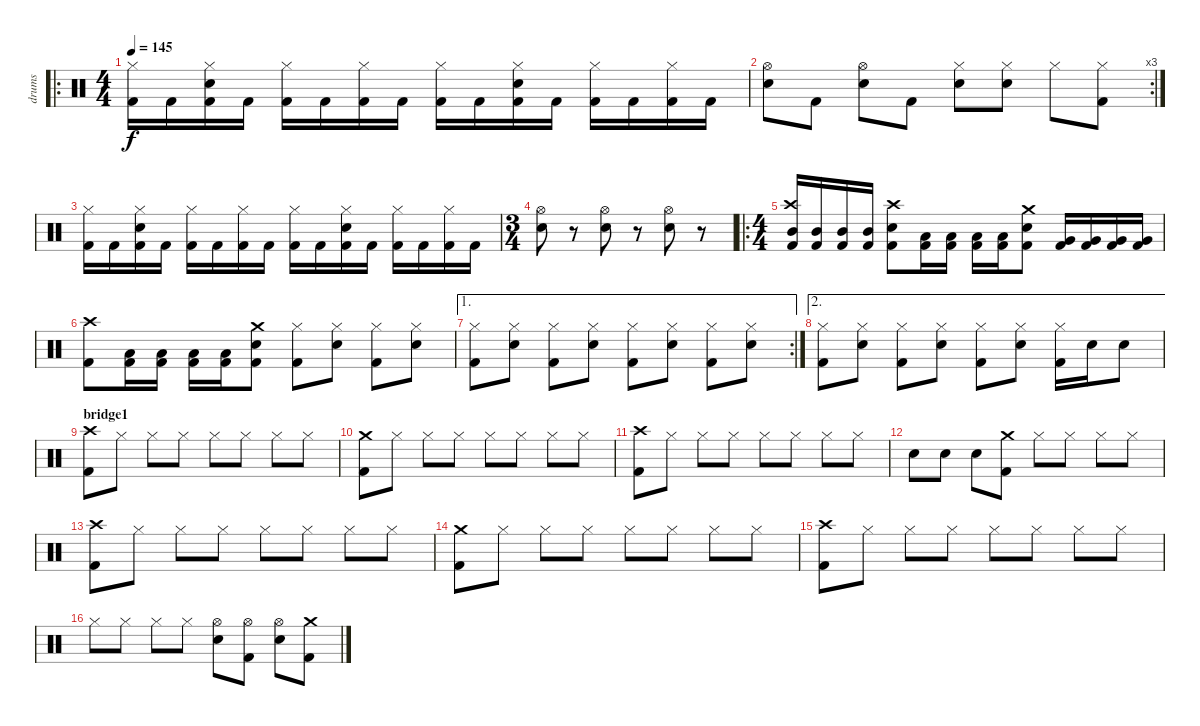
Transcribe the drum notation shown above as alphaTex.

\track ("drums" "drums") {instrument percussion}
\staff {score}
\articulation defaults
\ro
\ts (4 4)
\tempo 145
\clef neutral
\ks c
("Kick (hit) 2" "Hi-Hat (closed)").16{dy f} "Kick (hit) 2".16 ("Snare (hit) 2" "Kick (hit) 2" "Hi-Hat (closed)").16 "Kick (hit) 2".16 ("Kick (hit) 2" "Hi-Hat (closed)").16 "Kick (hit) 2".16 ("Kick (hit) 2" "Hi-Hat (closed)").16 "Kick (hit) 2".16 ("Kick (hit) 2" "Hi-Hat (closed)").16 "Kick (hit) 2".16 ("Snare (hit) 2" "Kick (hit) 2" "Hi-Hat (closed)").16 "Kick (hit) 2".16 ("Kick (hit) 2" "Hi-Hat (closed)").16 "Kick (hit) 2".16 ("Kick (hit) 2" "Hi-Hat (closed)").16 "Kick (hit) 2".16 |
\rc 3
("Snare (hit) 2" "Hi-Hat (open)").8 "Kick (hit) 2".8 ("Snare (hit) 2" "Hi-Hat (open)").8 "Kick (hit) 2".8 ("Snare (hit) 2" "Hi-Hat (closed)").8 ("Snare (hit) 2" "Hi-Hat (closed)").8 "Hi-Hat (closed)".8 ("Kick (hit) 2" "Hi-Hat (closed)").8 |
("Kick (hit) 2" "Hi-Hat (closed)").16 "Kick (hit) 2".16 ("Snare (hit) 2" "Kick (hit) 2" "Hi-Hat (closed)").16 "Kick (hit) 2".16 ("Kick (hit) 2" "Hi-Hat (closed)").16 "Kick (hit) 2".16 ("Kick (hit) 2" "Hi-Hat (closed)").16 "Kick (hit) 2".16 ("Kick (hit) 2" "Hi-Hat (closed)").16 "Kick (hit) 2".16 ("Snare (hit) 2" "Kick (hit) 2" "Hi-Hat (closed)").16 "Kick (hit) 2".16 ("Kick (hit) 2" "Hi-Hat (closed)").16 "Kick (hit) 2".16 ("Kick (hit) 2" "Hi-Hat (closed)").16 "Kick (hit) 2".16 |
\ts (3 4)
("Snare (hit) 2" "Hi-Hat (open)").8 r.8 ("Snare (hit) 2" "Hi-Hat (open)").8 r.8 ("Snare (hit) 2" "Hi-Hat (open)").8 r.8 |
\ro
\ts (4 4)
("Crash high (hit)" "Mid Tom (hit)" "Kick (hit) 2").16 ("Mid Tom (hit)" "Kick (hit) 2").16 ("Mid Tom (hit)" "Kick (hit) 2").16 ("Mid Tom (hit)" "Kick (hit) 2").16 ("Crash high (hit)" "Snare (hit) 2" "Kick (hit) 2").8 ("Low Tom (hit)" "Kick (hit) 2").16 ("Low Tom (hit)" "Kick (hit) 2").16 ("Low Tom (hit)" "Kick (hit) 2").16 ("Low Tom (hit)" "Kick (hit) 2").16 ("Crash medium (hit)" "Snare (hit) 2" "Kick (hit) 2").8 ("Very Low Tom (hit)" "Kick (hit) 2").16 ("Very Low Tom (hit)" "Kick (hit) 2").16 ("Very Low Tom (hit)" "Kick (hit) 2").16 ("Very Low Tom (hit)" "Kick (hit) 2").16 |
("Crash high (hit)" "Kick (hit) 2").8 ("Low Tom (hit)" "Kick (hit) 2").16 ("Low Tom (hit)" "Kick (hit) 2").16 ("Low Tom (hit)" "Kick (hit) 2").16 ("Low Tom (hit)" "Kick (hit) 2").16 ("Crash medium (hit)" "Snare (hit) 2" "Kick (hit) 2").8 ("Kick (hit) 2" "Hi-Hat (closed)").8 ("Snare (hit) 2" "Hi-Hat (closed)").8 ("Kick (hit) 2" "Hi-Hat (closed)").8 ("Snare (hit) 2" "Hi-Hat (closed)").8 |
\ae 1
\rc 2
("Kick (hit) 2" "Hi-Hat (closed)").8 ("Snare (hit) 2" "Hi-Hat (closed)").8 ("Kick (hit) 2" "Hi-Hat (closed)").8 ("Snare (hit) 2" "Hi-Hat (closed)").8 ("Kick (hit) 2" "Hi-Hat (closed)").8 ("Snare (hit) 2" "Hi-Hat (closed)").8 ("Kick (hit) 2" "Hi-Hat (closed)").8 ("Snare (hit) 2" "Hi-Hat (closed)").8 |
\ae 2
("Kick (hit) 2" "Hi-Hat (closed)").8 ("Snare (hit) 2" "Hi-Hat (closed)").8 ("Kick (hit) 2" "Hi-Hat (closed)").8 ("Snare (hit) 2" "Hi-Hat (closed)").8 ("Kick (hit) 2" "Hi-Hat (closed)").8 ("Snare (hit) 2" "Hi-Hat (closed)").8 ("Kick (hit) 2" "Hi-Hat (closed)").16 "Snare (hit) 2".16 "Snare (hit) 2".8 |
\section ("" "bridge1")
("Crash high (hit)" "Kick (hit) 2").8 "Hi-Hat (closed)".8 "Hi-Hat (closed)".8 "Hi-Hat (closed)".8 "Hi-Hat (closed)".8 "Hi-Hat (closed)".8 "Hi-Hat (closed)".8 "Hi-Hat (closed)".8 |
("Crash medium (hit)" "Kick (hit) 2").8 "Hi-Hat (closed)".8 "Hi-Hat (closed)".8 "Hi-Hat (closed)".8 "Hi-Hat (closed)".8 "Hi-Hat (closed)".8 "Hi-Hat (closed)".8 "Hi-Hat (closed)".8 |
("Crash high (hit)" "Kick (hit) 2").8 "Hi-Hat (closed)".8 "Hi-Hat (closed)".8 "Hi-Hat (closed)".8 "Hi-Hat (closed)".8 "Hi-Hat (closed)".8 "Hi-Hat (closed)".8 "Hi-Hat (closed)".8 |
"Snare (hit) 2".8 "Snare (hit) 2".8 "Snare (hit) 2".8 ("Crash medium (hit)" "Kick (hit) 2").8 "Hi-Hat (closed)".8 "Hi-Hat (closed)".8 "Hi-Hat (closed)".8 "Hi-Hat (closed)".8 |
("Crash high (hit)" "Kick (hit) 2").8 "Hi-Hat (closed)".8 "Hi-Hat (closed)".8 "Hi-Hat (closed)".8 "Hi-Hat (closed)".8 "Hi-Hat (closed)".8 "Hi-Hat (closed)".8 "Hi-Hat (closed)".8 |
("Crash medium (hit)" "Kick (hit) 2").8 "Hi-Hat (closed)".8 "Hi-Hat (closed)".8 "Hi-Hat (closed)".8 "Hi-Hat (closed)".8 "Hi-Hat (closed)".8 "Hi-Hat (closed)".8 "Hi-Hat (closed)".8 |
("Crash high (hit)" "Kick (hit) 2").8 "Hi-Hat (closed)".8 "Hi-Hat (closed)".8 "Hi-Hat (closed)".8 "Hi-Hat (closed)".8 "Hi-Hat (closed)".8 "Hi-Hat (closed)".8 "Hi-Hat (closed)".8 |
"Hi-Hat (closed)".8 "Hi-Hat (closed)".8 "Hi-Hat (closed)".8 "Hi-Hat (closed)".8 ("Snare (hit) 2" "Hi-Hat (open)").8 ("Kick (hit) 2" "Hi-Hat (open)").8 ("Snare (hit) 2" "Hi-Hat (open)").8 ("Crash medium (hit)" "Kick (hit) 2").8
